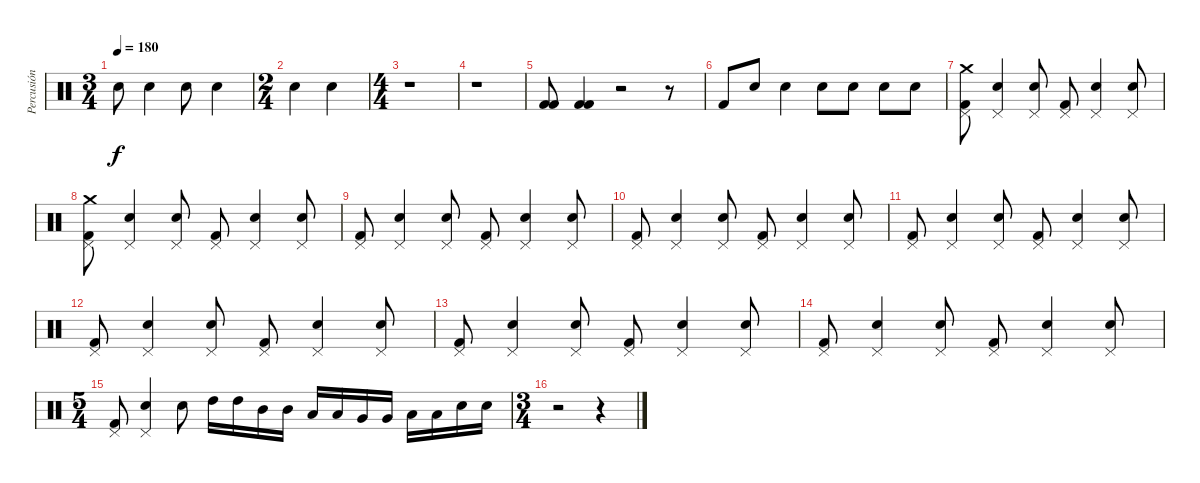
\track ("Percusión" "Percusión") {instrument percussion}
\staff {score}
\articulation defaults
\ts (3 4)
\tempo 180
\clef neutral
\ks c "Electric Snare (hit)".8{dy f} "Electric Snare (hit)".4 "Electric Snare (hit)".8 "Electric Snare (hit)".4
|
\ts (2 4)
"Electric Snare (hit)".4 "Electric Snare (hit)".4 |
\ts (4 4)
r.1 |
r.1 |
("Kick (hit) 2" "Kick (hit) 2").8{volume 16} ("Kick (hit) 2" "Kick (hit) 2").4{volume 16} r.2 r.8 |
"Kick (hit) 2".8 "Electric Snare (hit)".8 "Electric Snare (hit)".4 "Electric Snare (hit)".8 "Electric Snare (hit)".8 "Electric Snare (hit)".8 "Electric Snare (hit)".8 |
("Kick (hit) 2" "Pedal Hi-Hat (hit)" "Crash medium (hit)").8 ("Electric Snare (hit)" "Pedal Hi-Hat (hit)").4 ("Electric Snare (hit)" "Pedal Hi-Hat (hit)").8 ("Kick (hit) 2" "Pedal Hi-Hat (hit)").8 ("Electric Snare (hit)" "Pedal Hi-Hat (hit)").4 ("Electric Snare (hit)" "Pedal Hi-Hat (hit)").8 |
("Kick (hit) 2" "Pedal Hi-Hat (hit)" "Crash medium (hit)").8 ("Electric Snare (hit)" "Pedal Hi-Hat (hit)").4 ("Electric Snare (hit)" "Pedal Hi-Hat (hit)").8 ("Kick (hit) 2" "Pedal Hi-Hat (hit)").8 ("Electric Snare (hit)" "Pedal Hi-Hat (hit)").4 ("Electric Snare (hit)" "Pedal Hi-Hat (hit)").8 |
("Kick (hit) 2" "Pedal Hi-Hat (hit)").8 ("Electric Snare (hit)" "Pedal Hi-Hat (hit)").4 ("Electric Snare (hit)" "Pedal Hi-Hat (hit)").8 ("Kick (hit) 2" "Pedal Hi-Hat (hit)").8 ("Electric Snare (hit)" "Pedal Hi-Hat (hit)").4 ("Electric Snare (hit)" "Pedal Hi-Hat (hit)").8 |
("Kick (hit) 2" "Pedal Hi-Hat (hit)").8 ("Electric Snare (hit)" "Pedal Hi-Hat (hit)").4 ("Electric Snare (hit)" "Pedal Hi-Hat (hit)").8 ("Kick (hit) 2" "Pedal Hi-Hat (hit)").8 ("Electric Snare (hit)" "Pedal Hi-Hat (hit)").4 ("Electric Snare (hit)" "Pedal Hi-Hat (hit)").8 |
("Kick (hit) 2" "Pedal Hi-Hat (hit)").8 ("Electric Snare (hit)" "Pedal Hi-Hat (hit)").4 ("Electric Snare (hit)" "Pedal Hi-Hat (hit)").8 ("Kick (hit) 2" "Pedal Hi-Hat (hit)").8 ("Electric Snare (hit)" "Pedal Hi-Hat (hit)").4 ("Electric Snare (hit)" "Pedal Hi-Hat (hit)").8 |
("Kick (hit) 2" "Pedal Hi-Hat (hit)").8 ("Electric Snare (hit)" "Pedal Hi-Hat (hit)").4 ("Electric Snare (hit)" "Pedal Hi-Hat (hit)").8 ("Kick (hit) 2" "Pedal Hi-Hat (hit)").8 ("Electric Snare (hit)" "Pedal Hi-Hat (hit)").4 ("Electric Snare (hit)" "Pedal Hi-Hat (hit)").8 |
("Kick (hit) 2" "Pedal Hi-Hat (hit)").8 ("Electric Snare (hit)" "Pedal Hi-Hat (hit)").4 ("Electric Snare (hit)" "Pedal Hi-Hat (hit)").8 ("Kick (hit) 2" "Pedal Hi-Hat (hit)").8 ("Electric Snare (hit)" "Pedal Hi-Hat (hit)").4 ("Electric Snare (hit)" "Pedal Hi-Hat (hit)").8 |
("Kick (hit) 2" "Pedal Hi-Hat (hit)").8 ("Electric Snare (hit)" "Pedal Hi-Hat (hit)").4 ("Electric Snare (hit)" "Pedal Hi-Hat (hit)").8 ("Kick (hit) 2" "Pedal Hi-Hat (hit)").8 ("Electric Snare (hit)" "Pedal Hi-Hat (hit)").4 ("Electric Snare (hit)" "Pedal Hi-Hat (hit)").8 |
\ts (5 4)
("Kick (hit) 2" "Pedal Hi-Hat (hit)").8 ("Electric Snare (hit)" "Pedal Hi-Hat (hit)").4 "Electric Snare (hit)".8 "High Tom (hit)".16 "High Tom (hit)".16 "Mid Tom (hit)".16 "Mid Tom (hit)".16 "Low Tom (hit)".16 "Low Tom (hit)".16 "Very Low Tom (hit)".16 "Very Low Tom (hit)".16 "Low Floor Tom (hit)".16 "Low Floor Tom (hit)".16 "Electric Snare (hit)".16 "Electric Snare (hit)".16 |
\ts (3 4)
r.2 r.4
